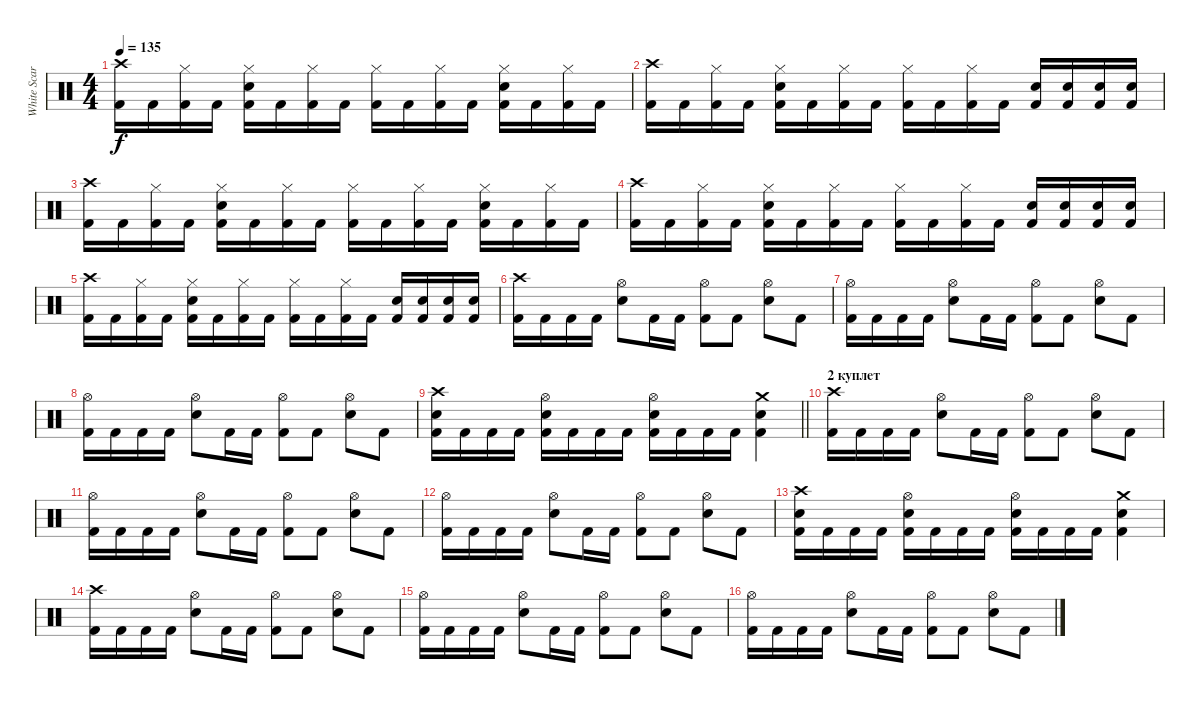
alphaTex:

\track ("White Scar" "White Scar") {instrument percussion}
\staff {score}
\articulation defaults
\ts (4 4)
\tempo 135
\clef neutral
\ks c
("Crash high (hit)" "Kick (hit) 2").16{dy f} "Kick (hit) 2".16 ("Hi-Hat (closed)" "Kick (hit) 2").16 "Kick (hit) 2".16 ("Snare (hit) 2" "Hi-Hat (closed)" "Kick (hit) 2").16 "Kick (hit) 2".16 ("Hi-Hat (closed)" "Kick (hit) 2").16 "Kick (hit) 2".16 ("Hi-Hat (closed)" "Kick (hit) 2").16 "Kick (hit) 2".16 ("Hi-Hat (closed)" "Kick (hit) 2").16 "Kick (hit) 2".16 ("Snare (hit) 2" "Hi-Hat (closed)" "Kick (hit) 2").16 "Kick (hit) 2".16 ("Hi-Hat (closed)" "Kick (hit) 2").16 "Kick (hit) 2".16 |
("Crash high (hit)" "Kick (hit) 2").16 "Kick (hit) 2".16 ("Hi-Hat (closed)" "Kick (hit) 2").16 "Kick (hit) 2".16 ("Snare (hit) 2" "Hi-Hat (closed)" "Kick (hit) 2").16 "Kick (hit) 2".16 ("Hi-Hat (closed)" "Kick (hit) 2").16 "Kick (hit) 2".16 ("Hi-Hat (closed)" "Kick (hit) 2").16 "Kick (hit) 2".16 ("Hi-Hat (closed)" "Kick (hit) 2").16 "Kick (hit) 2".16 ("Snare (hit) 2" "Kick (hit) 2").16 ("Snare (hit) 2" "Kick (hit) 2").16 ("Snare (hit) 2" "Kick (hit) 2").16 ("Snare (hit) 2" "Kick (hit) 2").16 |
("Crash high (hit)" "Kick (hit) 2").16 "Kick (hit) 2".16 ("Hi-Hat (closed)" "Kick (hit) 2").16 "Kick (hit) 2".16 ("Snare (hit) 2" "Hi-Hat (closed)" "Kick (hit) 2").16 "Kick (hit) 2".16 ("Hi-Hat (closed)" "Kick (hit) 2").16 "Kick (hit) 2".16 ("Hi-Hat (closed)" "Kick (hit) 2").16 "Kick (hit) 2".16 ("Hi-Hat (closed)" "Kick (hit) 2").16 "Kick (hit) 2".16 ("Snare (hit) 2" "Hi-Hat (closed)" "Kick (hit) 2").16 "Kick (hit) 2".16 ("Hi-Hat (closed)" "Kick (hit) 2").16 "Kick (hit) 2".16 |
("Crash high (hit)" "Kick (hit) 2").16 "Kick (hit) 2".16 ("Hi-Hat (closed)" "Kick (hit) 2").16 "Kick (hit) 2".16 ("Snare (hit) 2" "Hi-Hat (closed)" "Kick (hit) 2").16 "Kick (hit) 2".16 ("Hi-Hat (closed)" "Kick (hit) 2").16 "Kick (hit) 2".16 ("Hi-Hat (closed)" "Kick (hit) 2").16 "Kick (hit) 2".16 ("Hi-Hat (closed)" "Kick (hit) 2").16 "Kick (hit) 2".16 ("Snare (hit) 2" "Kick (hit) 2").16 ("Snare (hit) 2" "Kick (hit) 2").16 ("Snare (hit) 2" "Kick (hit) 2").16 ("Snare (hit) 2" "Kick (hit) 2").16 |
("Crash high (hit)" "Kick (hit) 2").16 "Kick (hit) 2".16 ("Hi-Hat (closed)" "Kick (hit) 2").16 "Kick (hit) 2".16 ("Snare (hit) 2" "Hi-Hat (closed)" "Kick (hit) 2").16 "Kick (hit) 2".16 ("Hi-Hat (closed)" "Kick (hit) 2").16 "Kick (hit) 2".16 ("Hi-Hat (closed)" "Kick (hit) 2").16 "Kick (hit) 2".16 ("Hi-Hat (closed)" "Kick (hit) 2").16 "Kick (hit) 2".16 ("Snare (hit) 2" "Kick (hit) 2").16 ("Snare (hit) 2" "Kick (hit) 2").16 ("Snare (hit) 2" "Kick (hit) 2").16 ("Snare (hit) 2" "Kick (hit) 2").16 |
("Crash high (hit)" "Kick (hit) 2").16 "Kick (hit) 2".16 "Kick (hit) 2".16 "Kick (hit) 2".16 ("Hi-Hat (open)" "Snare (hit) 2").8 "Kick (hit) 2".16 "Kick (hit) 2".16 ("Hi-Hat (open)" "Kick (hit) 2").8 "Kick (hit) 2".8 ("Hi-Hat (open)" "Snare (hit) 2").8 "Kick (hit) 2".8 |
("Hi-Hat (open)" "Kick (hit) 2").16 "Kick (hit) 2".16 "Kick (hit) 2".16 "Kick (hit) 2".16 ("Hi-Hat (open)" "Snare (hit) 2").8 "Kick (hit) 2".16 "Kick (hit) 2".16 ("Hi-Hat (open)" "Kick (hit) 2").8 "Kick (hit) 2".8 ("Hi-Hat (open)" "Snare (hit) 2").8 "Kick (hit) 2".8 |
("Hi-Hat (open)" "Kick (hit) 2").16 "Kick (hit) 2".16 "Kick (hit) 2".16 "Kick (hit) 2".16 ("Hi-Hat (open)" "Snare (hit) 2").8 "Kick (hit) 2".16 "Kick (hit) 2".16 ("Hi-Hat (open)" "Kick (hit) 2").8 "Kick (hit) 2".8 ("Hi-Hat (open)" "Snare (hit) 2").8 "Kick (hit) 2".8 |
\barLineRight lightlight
("Crash high (hit)" "Snare (hit) 2" "Kick (hit) 2").16 "Kick (hit) 2".16 "Kick (hit) 2".16 "Kick (hit) 2".16 ("Hi-Hat (open)" "Snare (hit) 2" "Kick (hit) 2").16 "Kick (hit) 2".16 "Kick (hit) 2".16 "Kick (hit) 2".16 ("Hi-Hat (open)" "Snare (hit) 2" "Kick (hit) 2").16 "Kick (hit) 2".16 "Kick (hit) 2".16 "Kick (hit) 2".16 ("Crash medium (hit)" "Snare (hit) 2" "Kick (hit) 2").4 |
\section ("" "2 куплет")
("Crash high (hit)" "Kick (hit) 2").16 "Kick (hit) 2".16 "Kick (hit) 2".16 "Kick (hit) 2".16 ("Hi-Hat (open)" "Snare (hit) 2").8 "Kick (hit) 2".16 "Kick (hit) 2".16 ("Hi-Hat (open)" "Kick (hit) 2").8 "Kick (hit) 2".8 ("Hi-Hat (open)" "Snare (hit) 2").8 "Kick (hit) 2".8 |
("Hi-Hat (open)" "Kick (hit) 2").16 "Kick (hit) 2".16 "Kick (hit) 2".16 "Kick (hit) 2".16 ("Hi-Hat (open)" "Snare (hit) 2").8 "Kick (hit) 2".16 "Kick (hit) 2".16 ("Hi-Hat (open)" "Kick (hit) 2").8 "Kick (hit) 2".8 ("Hi-Hat (open)" "Snare (hit) 2").8 "Kick (hit) 2".8 |
("Hi-Hat (open)" "Kick (hit) 2").16 "Kick (hit) 2".16 "Kick (hit) 2".16 "Kick (hit) 2".16 ("Hi-Hat (open)" "Snare (hit) 2").8 "Kick (hit) 2".16 "Kick (hit) 2".16 ("Hi-Hat (open)" "Kick (hit) 2").8 "Kick (hit) 2".8 ("Hi-Hat (open)" "Snare (hit) 2").8 "Kick (hit) 2".8 |
("Crash high (hit)" "Snare (hit) 2" "Kick (hit) 2").16 "Kick (hit) 2".16 "Kick (hit) 2".16 "Kick (hit) 2".16 ("Hi-Hat (open)" "Snare (hit) 2" "Kick (hit) 2").16 "Kick (hit) 2".16 "Kick (hit) 2".16 "Kick (hit) 2".16 ("Hi-Hat (open)" "Snare (hit) 2" "Kick (hit) 2").16 "Kick (hit) 2".16 "Kick (hit) 2".16 "Kick (hit) 2".16 ("Crash medium (hit)" "Snare (hit) 2" "Kick (hit) 2").4 |
("Crash high (hit)" "Kick (hit) 2").16 "Kick (hit) 2".16 "Kick (hit) 2".16 "Kick (hit) 2".16 ("Hi-Hat (open)" "Snare (hit) 2").8 "Kick (hit) 2".16 "Kick (hit) 2".16 ("Hi-Hat (open)" "Kick (hit) 2").8 "Kick (hit) 2".8 ("Hi-Hat (open)" "Snare (hit) 2").8 "Kick (hit) 2".8 |
("Hi-Hat (open)" "Kick (hit) 2").16 "Kick (hit) 2".16 "Kick (hit) 2".16 "Kick (hit) 2".16 ("Hi-Hat (open)" "Snare (hit) 2").8 "Kick (hit) 2".16 "Kick (hit) 2".16 ("Hi-Hat (open)" "Kick (hit) 2").8 "Kick (hit) 2".8 ("Hi-Hat (open)" "Snare (hit) 2").8 "Kick (hit) 2".8 |
("Hi-Hat (open)" "Kick (hit) 2").16 "Kick (hit) 2".16 "Kick (hit) 2".16 "Kick (hit) 2".16 ("Hi-Hat (open)" "Snare (hit) 2").8 "Kick (hit) 2".16 "Kick (hit) 2".16 ("Hi-Hat (open)" "Kick (hit) 2").8 "Kick (hit) 2".8 ("Hi-Hat (open)" "Snare (hit) 2").8 "Kick (hit) 2".8
